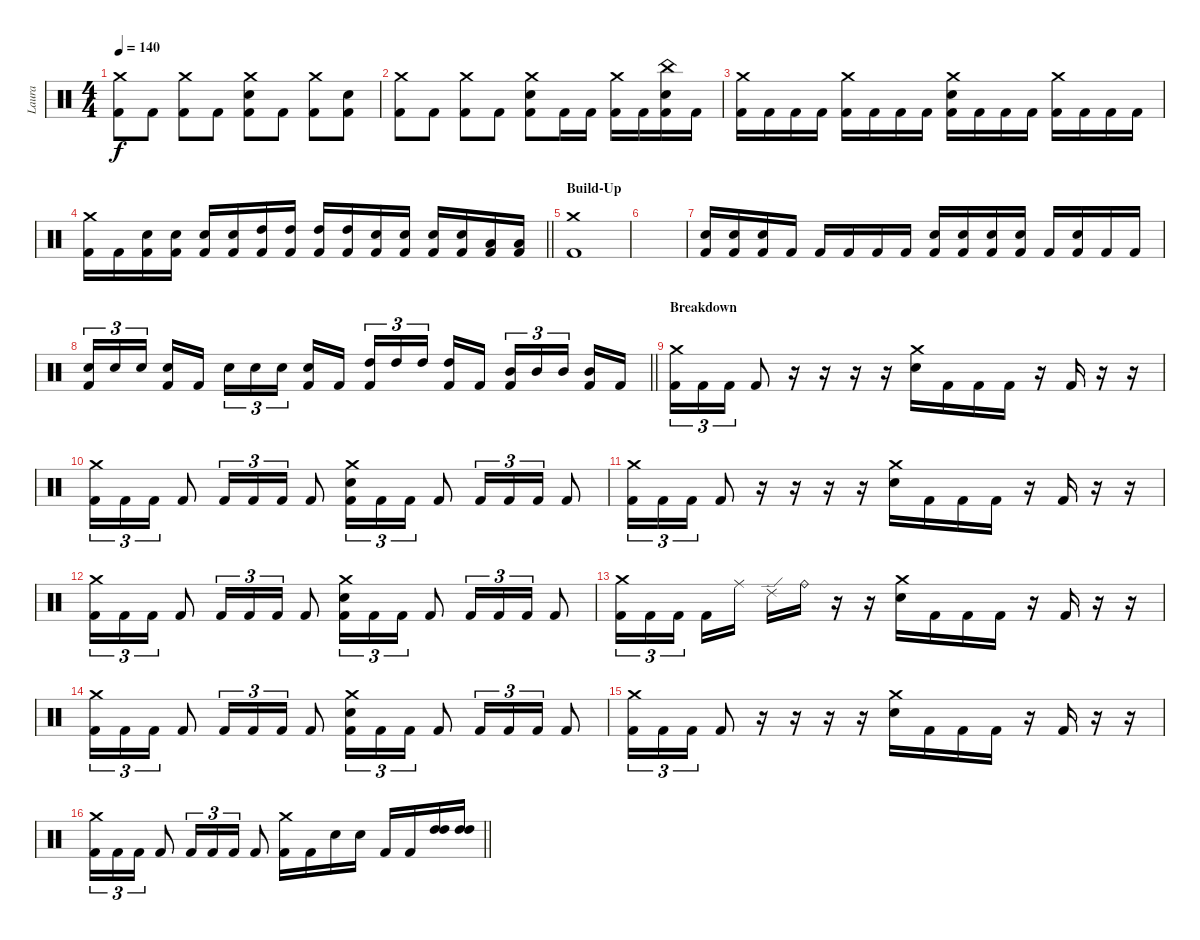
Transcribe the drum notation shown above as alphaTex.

\track ("Laura" "Laura") {instrument percussion}
\staff {score}
\articulation defaults
\ts (4 4)
\tempo 140
\clef neutral
\ks c
("Crash medium (hit)" "Kick (hit) 2").8{dy f} "Kick (hit) 2".8 ("Crash medium (hit)" "Kick (hit) 2").8 "Kick (hit) 2".8 ("Crash medium (hit)" "Electric Snare (hit)" "Kick (hit) 2").8 "Kick (hit) 2".8 ("Crash medium (hit)" "Kick (hit) 2").8 ("Electric Snare (hit)" "Kick (hit) 2").8 |
("Crash medium (hit)" "Kick (hit) 2").8 "Kick (hit) 2".8 ("Crash medium (hit)" "Kick (hit) 2").8 "Kick (hit) 2".8 ("Crash medium (hit)" "Electric Snare (hit)" "Kick (hit) 2").8 "Kick (hit) 2".16 "Kick (hit) 2".16 ("Crash medium (hit)" "Kick (hit) 2").16 "Kick (hit) 2".16 ("China (hit)" "Electric Snare (hit)" "Kick (hit) 2").16 "Kick (hit) 2".16 |
("Crash medium (hit)" "Kick (hit) 2").16 "Kick (hit) 2".16 "Kick (hit) 2".16 "Kick (hit) 2".16 ("Crash medium (hit)" "Kick (hit) 2").16 "Kick (hit) 2".16 "Kick (hit) 2".16 "Kick (hit) 2".16 ("Crash medium (hit)" "Electric Snare (hit)" "Kick (hit) 2").16 "Kick (hit) 2".16 "Kick (hit) 2".16 "Kick (hit) 2".16 ("Crash medium (hit)" "Kick (hit) 2").16 "Kick (hit) 2".16 "Kick (hit) 2".16 "Kick (hit) 2".16 |
\barLineRight lightlight
("Crash medium (hit)" "Kick (hit) 2").16 "Kick (hit) 2".16 ("Electric Snare (hit)" "Kick (hit) 2").16 ("Electric Snare (hit)" "Kick (hit) 2").16 ("Electric Snare (hit)" "Kick (hit) 2").16 ("Electric Snare (hit)" "Kick (hit) 2").16 ("High Tom (hit)" "Kick (hit) 2").16 ("High Tom (hit)" "Kick (hit) 2").16 ("High Tom (hit)" "Kick (hit) 2").16 ("High Tom (hit)" "Kick (hit) 2").16 ("Electric Snare (hit)" "Kick (hit) 2").16 ("Electric Snare (hit)" "Kick (hit) 2").16 ("Electric Snare (hit)" "Kick (hit) 2").16 ("Electric Snare (hit)" "Kick (hit) 2").16 ("Low Floor Tom (hit)" "Kick (hit) 2").16 ("Low Floor Tom (hit)" "Kick (hit) 2").16 |
\section ("" "Build-Up")
("Crash medium (hit)" "Kick (hit) 2").1 |
|
("Electric Snare (hit)" "Kick (hit) 2").16 ("Electric Snare (hit)" "Kick (hit) 2").16 ("Electric Snare (hit)" "Kick (hit) 2").16 "Kick (hit) 2".16 "Kick (hit) 2".16 "Kick (hit) 2".16 "Kick (hit) 2".16 "Kick (hit) 2".16 ("Electric Snare (hit)" "Kick (hit) 2").16 ("Electric Snare (hit)" "Kick (hit) 2").16 ("Electric Snare (hit)" "Kick (hit) 2").16 ("Electric Snare (hit)" "Kick (hit) 2").16 "Kick (hit) 2".16 ("Electric Snare (hit)" "Kick (hit) 2").16 "Kick (hit) 2".16 "Kick (hit) 2".16 |
\barLineRight lightlight
("Electric Snare (hit)" "Kick (hit) 2").16{tu (3 2)} "Electric Snare (hit)".16{tu (3 2)} "Electric Snare (hit)".16{tu (3 2) beam splitsecondary} ("Electric Snare (hit)" "Kick (hit) 2").16 "Kick (hit) 2".16 "Electric Snare (hit)".16{tu (3 2)} "Electric Snare (hit)".16{tu (3 2)} "Electric Snare (hit)".16{tu (3 2) beam splitsecondary} ("Electric Snare (hit)" "Kick (hit) 2").16 "Kick (hit) 2".16 ("High Tom (hit)" "Kick (hit) 2").16{tu (3 2)} "High Tom (hit)".16{tu (3 2)} "High Tom (hit)".16{tu (3 2) beam splitsecondary} ("High Tom (hit)" "Kick (hit) 2").16 "Kick (hit) 2".16 ("Mid Tom (hit)" "Kick (hit) 2").16{tu (3 2)} "Mid Tom (hit)".16{tu (3 2)} "Mid Tom (hit)".16{tu (3 2) beam splitsecondary} ("Mid Tom (hit)" "Kick (hit) 2").16 "Kick (hit) 2".16 |
\section ("" "Breakdown")
("Crash medium (hit)" "Kick (hit) 2").16{tu (3 2)} "Kick (hit) 2".16{tu (3 2)} "Kick (hit) 2".16{tu (3 2)} "Kick (hit) 2".8 r.16 r.16 r.16 r.16 ("Crash medium (hit)" "Electric Snare (hit)").16 "Kick (hit) 2".16 "Kick (hit) 2".16 "Kick (hit) 2".16 r.16 "Kick (hit) 2".16 r.16 r.16 |
("Crash medium (hit)" "Kick (hit) 2").16{tu (3 2)} "Kick (hit) 2".16{tu (3 2)} "Kick (hit) 2".16{tu (3 2)} "Kick (hit) 2".8 "Kick (hit) 2".16{tu (3 2)} "Kick (hit) 2".16{tu (3 2)} "Kick (hit) 2".16{tu (3 2)} "Kick (hit) 2".8 ("Crash medium (hit)" "Electric Snare (hit)" "Kick (hit) 2").16{tu (3 2)} "Kick (hit) 2".16{tu (3 2)} "Kick (hit) 2".16{tu (3 2)} "Kick (hit) 2".8 "Kick (hit) 2".16{tu (3 2)} "Kick (hit) 2".16{tu (3 2)} "Kick (hit) 2".16{tu (3 2)} "Kick (hit) 2".8 |
("Crash medium (hit)" "Kick (hit) 2").16{tu (3 2)} "Kick (hit) 2".16{tu (3 2)} "Kick (hit) 2".16{tu (3 2)} "Kick (hit) 2".8 r.16 r.16 r.16 r.16 ("Crash medium (hit)" "Electric Snare (hit)").16 "Kick (hit) 2".16 "Kick (hit) 2".16 "Kick (hit) 2".16 r.16 "Kick (hit) 2".16 r.16 r.16 |
("Crash medium (hit)" "Kick (hit) 2").16{tu (3 2)} "Kick (hit) 2".16{tu (3 2)} "Kick (hit) 2".16{tu (3 2)} "Kick (hit) 2".8 "Kick (hit) 2".16{tu (3 2)} "Kick (hit) 2".16{tu (3 2)} "Kick (hit) 2".16{tu (3 2)} "Kick (hit) 2".8 ("Crash medium (hit)" "Electric Snare (hit)" "Kick (hit) 2").16{tu (3 2)} "Kick (hit) 2".16{tu (3 2)} "Kick (hit) 2".16{tu (3 2)} "Kick (hit) 2".8 "Kick (hit) 2".16{tu (3 2)} "Kick (hit) 2".16{tu (3 2)} "Kick (hit) 2".16{tu (3 2)} "Kick (hit) 2".8 |
("Crash medium (hit)" "Kick (hit) 2").16{tu (3 2)} "Kick (hit) 2".16{tu (3 2)} "Kick (hit) 2".16{tu (3 2) beam splitsecondary} "Kick (hit) 2".16 "Ride (middle)".16 "Ride (edge) 2".16 "Ride (bell)".16 r.16 r.16 ("Crash medium (hit)" "Electric Snare (hit)").16 "Kick (hit) 2".16 "Kick (hit) 2".16 "Kick (hit) 2".16 r.16 "Kick (hit) 2".16 r.16 r.16 |
("Crash medium (hit)" "Kick (hit) 2").16{tu (3 2)} "Kick (hit) 2".16{tu (3 2)} "Kick (hit) 2".16{tu (3 2)} "Kick (hit) 2".8 "Kick (hit) 2".16{tu (3 2)} "Kick (hit) 2".16{tu (3 2)} "Kick (hit) 2".16{tu (3 2)} "Kick (hit) 2".8 ("Crash medium (hit)" "Electric Snare (hit)" "Kick (hit) 2").16{tu (3 2)} "Kick (hit) 2".16{tu (3 2)} "Kick (hit) 2".16{tu (3 2)} "Kick (hit) 2".8 "Kick (hit) 2".16{tu (3 2)} "Kick (hit) 2".16{tu (3 2)} "Kick (hit) 2".16{tu (3 2)} "Kick (hit) 2".8 |
("Crash medium (hit)" "Kick (hit) 2").16{tu (3 2)} "Kick (hit) 2".16{tu (3 2)} "Kick (hit) 2".16{tu (3 2)} "Kick (hit) 2".8 r.16 r.16 r.16 r.16 ("Crash medium (hit)" "Electric Snare (hit)").16 "Kick (hit) 2".16 "Kick (hit) 2".16 "Kick (hit) 2".16 r.16 "Kick (hit) 2".16 r.16 r.16 |
\barLineRight lightlight
("Crash medium (hit)" "Kick (hit) 2").16{tu (3 2)} "Kick (hit) 2".16{tu (3 2)} "Kick (hit) 2".16{tu (3 2)} "Kick (hit) 2".8 "Kick (hit) 2".16{tu (3 2)} "Kick (hit) 2".16{tu (3 2)} "Kick (hit) 2".16{tu (3 2)} "Kick (hit) 2".8 ("Crash medium (hit)" "Kick (hit) 2").16 "Kick (hit) 2".16 "Electric Snare (hit)".16 "Electric Snare (hit)".16 "Kick (hit) 2".16 "Kick (hit) 2".16 ("High Tom (hit)" "High Tom (hit)").16 ("High Tom (hit)" "High Tom (hit)").16
